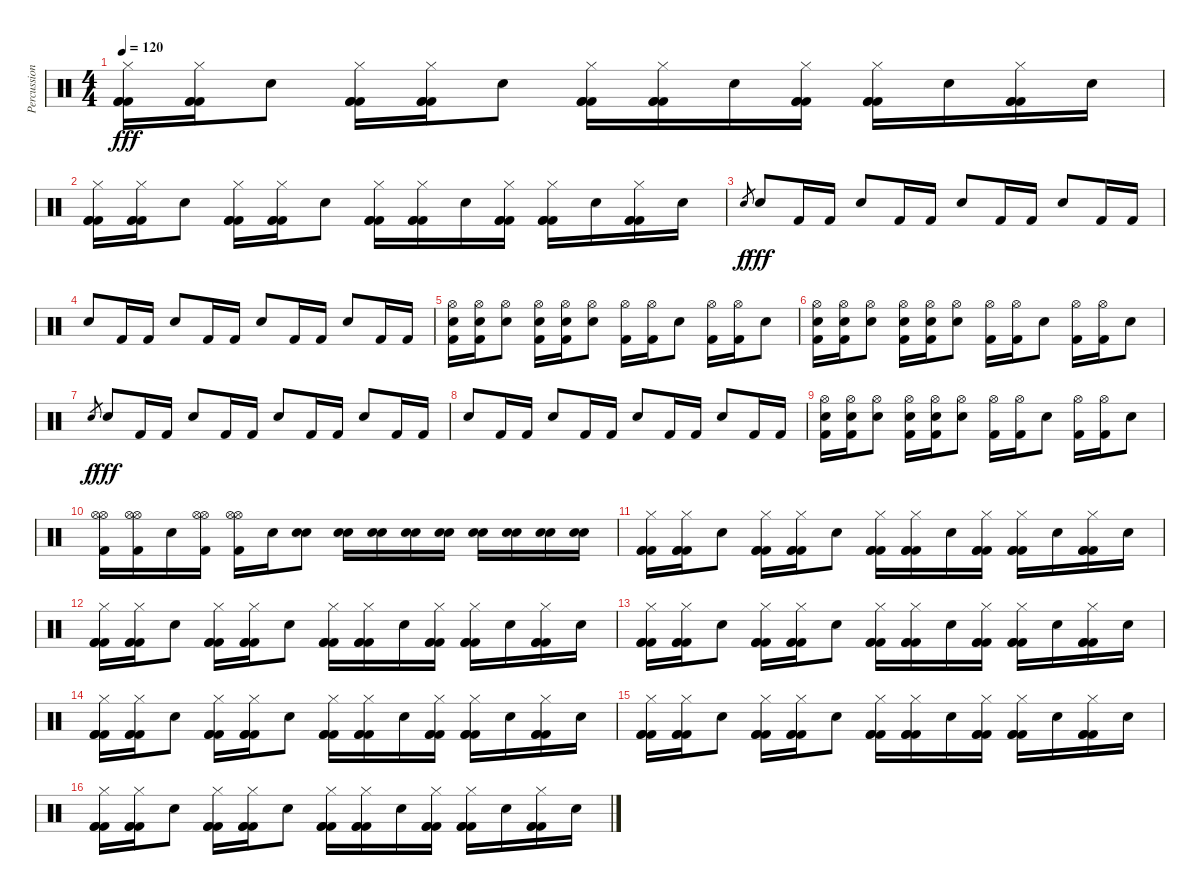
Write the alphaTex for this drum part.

\track ("Percussion" "Percussion") {instrument percussion}
\staff {score}
\articulation defaults
\ts (4 4)
\tempo 120
\clef neutral
\ks c
("Kick (hit) 2" "Kick (hit) 2" "Hi-Hat (closed)" "Kick (hit) 2").16{dy fff} ("Kick (hit) 2" "Kick (hit) 2" "Hi-Hat (closed)" "Kick (hit) 2").16 "Snare (hit) 2".8 ("Kick (hit) 2" "Kick (hit) 2" "Hi-Hat (closed)" "Kick (hit) 2").16 ("Kick (hit) 2" "Kick (hit) 2" "Hi-Hat (closed)" "Kick (hit) 2").16 "Snare (hit) 2".8 ("Kick (hit) 2" "Kick (hit) 2" "Hi-Hat (closed)" "Kick (hit) 2").16 ("Kick (hit) 2" "Kick (hit) 2" "Hi-Hat (closed)" "Kick (hit) 2").16 "Snare (hit) 2".16 ("Kick (hit) 2" "Kick (hit) 2" "Hi-Hat (closed)" "Kick (hit) 2").16 ("Kick (hit) 2" "Kick (hit) 2" "Hi-Hat (closed)" "Kick (hit) 2").16 "Snare (hit) 2".16 ("Kick (hit) 2" "Kick (hit) 2" "Hi-Hat (closed)" "Kick (hit) 2").16 "Snare (hit) 2".16 |
("Kick (hit) 2" "Kick (hit) 2" "Hi-Hat (closed)" "Kick (hit) 2").16 ("Kick (hit) 2" "Kick (hit) 2" "Hi-Hat (closed)" "Kick (hit) 2").16 "Snare (hit) 2".8 ("Kick (hit) 2" "Kick (hit) 2" "Hi-Hat (closed)" "Kick (hit) 2").16 ("Kick (hit) 2" "Kick (hit) 2" "Hi-Hat (closed)" "Kick (hit) 2").16 "Snare (hit) 2".8 ("Kick (hit) 2" "Kick (hit) 2" "Hi-Hat (closed)" "Kick (hit) 2").16 ("Kick (hit) 2" "Kick (hit) 2" "Hi-Hat (closed)" "Kick (hit) 2").16 "Snare (hit) 2".16 ("Kick (hit) 2" "Kick (hit) 2" "Hi-Hat (closed)" "Kick (hit) 2").16 ("Kick (hit) 2" "Kick (hit) 2" "Hi-Hat (closed)" "Kick (hit) 2").16 "Snare (hit) 2".16 ("Kick (hit) 2" "Kick (hit) 2" "Hi-Hat (closed)" "Kick (hit) 2").16 "Snare (hit) 2".16 |
"Snare (hit) 2".8{gr dy f} "Snare (hit) 2".8{dy fff} "Kick (hit) 2".16 "Kick (hit) 2".16 "Snare (hit) 2".8 "Kick (hit) 2".16 "Kick (hit) 2".16 "Snare (hit) 2".8 "Kick (hit) 2".16 "Kick (hit) 2".16 "Snare (hit) 2".8 "Kick (hit) 2".16 "Kick (hit) 2".16 |
"Snare (hit) 2".8 "Kick (hit) 2".16 "Kick (hit) 2".16 "Snare (hit) 2".8 "Kick (hit) 2".16 "Kick (hit) 2".16 "Snare (hit) 2".8 "Kick (hit) 2".16 "Kick (hit) 2".16 "Snare (hit) 2".8 "Kick (hit) 2".16 "Kick (hit) 2".16 |
("Hi-Hat (open)" "Snare (hit) 2" "Kick (hit) 2").16 ("Hi-Hat (open)" "Snare (hit) 2" "Kick (hit) 2").16 ("Hi-Hat (open)" "Snare (hit) 2").8 ("Hi-Hat (open)" "Snare (hit) 2" "Kick (hit) 2").16 ("Hi-Hat (open)" "Snare (hit) 2" "Kick (hit) 2").16 ("Hi-Hat (open)" "Snare (hit) 2").8 ("Hi-Hat (open)" "Kick (hit) 2").16 ("Hi-Hat (open)" "Kick (hit) 2").16 "Snare (hit) 2".8 ("Hi-Hat (open)" "Kick (hit) 2").16 ("Hi-Hat (open)" "Kick (hit) 2").16 "Snare (hit) 2".8 |
("Hi-Hat (open)" "Snare (hit) 2" "Kick (hit) 2").16 ("Hi-Hat (open)" "Snare (hit) 2" "Kick (hit) 2").16 ("Hi-Hat (open)" "Snare (hit) 2").8 ("Hi-Hat (open)" "Snare (hit) 2" "Kick (hit) 2").16 ("Hi-Hat (open)" "Snare (hit) 2" "Kick (hit) 2").16 ("Hi-Hat (open)" "Snare (hit) 2").8 ("Hi-Hat (open)" "Kick (hit) 2").16 ("Hi-Hat (open)" "Kick (hit) 2").16 "Snare (hit) 2".8 ("Hi-Hat (open)" "Kick (hit) 2").16 ("Hi-Hat (open)" "Kick (hit) 2").16 "Snare (hit) 2".8 |
"Snare (hit) 2".8{gr dy f} "Snare (hit) 2".8{dy fff} "Kick (hit) 2".16 "Kick (hit) 2".16 "Snare (hit) 2".8 "Kick (hit) 2".16 "Kick (hit) 2".16 "Snare (hit) 2".8 "Kick (hit) 2".16 "Kick (hit) 2".16 "Snare (hit) 2".8 "Kick (hit) 2".16 "Kick (hit) 2".16 |
"Snare (hit) 2".8 "Kick (hit) 2".16 "Kick (hit) 2".16 "Snare (hit) 2".8 "Kick (hit) 2".16 "Kick (hit) 2".16 "Snare (hit) 2".8 "Kick (hit) 2".16 "Kick (hit) 2".16 "Snare (hit) 2".8 "Kick (hit) 2".16 "Kick (hit) 2".16 |
("Hi-Hat (open)" "Snare (hit) 2" "Kick (hit) 2").16 ("Hi-Hat (open)" "Snare (hit) 2" "Kick (hit) 2").16 ("Hi-Hat (open)" "Snare (hit) 2").8 ("Hi-Hat (open)" "Snare (hit) 2" "Kick (hit) 2").16 ("Hi-Hat (open)" "Snare (hit) 2" "Kick (hit) 2").16 ("Hi-Hat (open)" "Snare (hit) 2").8 ("Hi-Hat (open)" "Kick (hit) 2").16 ("Hi-Hat (open)" "Kick (hit) 2").16 "Snare (hit) 2".8 ("Hi-Hat (open)" "Kick (hit) 2").16 ("Hi-Hat (open)" "Kick (hit) 2").16 "Snare (hit) 2".8 |
("Hi-Hat (open)" "Hi-Hat (open)" "Kick (hit) 2").16 ("Hi-Hat (open)" "Hi-Hat (open)" "Kick (hit) 2").16 "Snare (hit) 2".16 ("Hi-Hat (open)" "Hi-Hat (open)" "Kick (hit) 2").16 ("Hi-Hat (open)" "Hi-Hat (open)" "Kick (hit) 2").16 "Snare (hit) 2".16 ("Snare (hit) 2" "Snare (hit) 2").8 ("Snare (hit) 2" "Snare (hit) 2").16 ("Snare (hit) 2" "Snare (hit) 2").16 ("Snare (hit) 2" "Snare (hit) 2").16 ("Snare (hit) 2" "Snare (hit) 2").16 ("Snare (hit) 2" "Snare (hit) 2").16 ("Snare (hit) 2" "Snare (hit) 2").16 ("Snare (hit) 2" "Snare (hit) 2").16 ("Snare (hit) 2" "Snare (hit) 2").16 |
("Kick (hit) 2" "Kick (hit) 2" "Hi-Hat (closed)" "Kick (hit) 2").16 ("Kick (hit) 2" "Kick (hit) 2" "Hi-Hat (closed)" "Kick (hit) 2").16 "Snare (hit) 2".8 ("Kick (hit) 2" "Kick (hit) 2" "Hi-Hat (closed)" "Kick (hit) 2").16 ("Kick (hit) 2" "Kick (hit) 2" "Hi-Hat (closed)" "Kick (hit) 2").16 "Snare (hit) 2".8 ("Kick (hit) 2" "Kick (hit) 2" "Hi-Hat (closed)" "Kick (hit) 2").16 ("Kick (hit) 2" "Kick (hit) 2" "Hi-Hat (closed)" "Kick (hit) 2").16 "Snare (hit) 2".16 ("Kick (hit) 2" "Kick (hit) 2" "Hi-Hat (closed)" "Kick (hit) 2").16 ("Kick (hit) 2" "Kick (hit) 2" "Hi-Hat (closed)" "Kick (hit) 2").16 "Snare (hit) 2".16 ("Kick (hit) 2" "Kick (hit) 2" "Hi-Hat (closed)" "Kick (hit) 2").16 "Snare (hit) 2".16 |
("Kick (hit) 2" "Kick (hit) 2" "Hi-Hat (closed)" "Kick (hit) 2").16 ("Kick (hit) 2" "Kick (hit) 2" "Hi-Hat (closed)" "Kick (hit) 2").16 "Snare (hit) 2".8 ("Kick (hit) 2" "Kick (hit) 2" "Hi-Hat (closed)" "Kick (hit) 2").16 ("Kick (hit) 2" "Kick (hit) 2" "Hi-Hat (closed)" "Kick (hit) 2").16 "Snare (hit) 2".8 ("Kick (hit) 2" "Kick (hit) 2" "Hi-Hat (closed)" "Kick (hit) 2").16 ("Kick (hit) 2" "Kick (hit) 2" "Hi-Hat (closed)" "Kick (hit) 2").16 "Snare (hit) 2".16 ("Kick (hit) 2" "Kick (hit) 2" "Hi-Hat (closed)" "Kick (hit) 2").16 ("Kick (hit) 2" "Kick (hit) 2" "Hi-Hat (closed)" "Kick (hit) 2").16 "Snare (hit) 2".16 ("Kick (hit) 2" "Kick (hit) 2" "Hi-Hat (closed)" "Kick (hit) 2").16 "Snare (hit) 2".16 |
("Kick (hit) 2" "Kick (hit) 2" "Hi-Hat (closed)" "Kick (hit) 2").16 ("Kick (hit) 2" "Kick (hit) 2" "Hi-Hat (closed)" "Kick (hit) 2").16 "Snare (hit) 2".8 ("Kick (hit) 2" "Kick (hit) 2" "Hi-Hat (closed)" "Kick (hit) 2").16 ("Kick (hit) 2" "Kick (hit) 2" "Hi-Hat (closed)" "Kick (hit) 2").16 "Snare (hit) 2".8 ("Kick (hit) 2" "Kick (hit) 2" "Hi-Hat (closed)" "Kick (hit) 2").16 ("Kick (hit) 2" "Kick (hit) 2" "Hi-Hat (closed)" "Kick (hit) 2").16 "Snare (hit) 2".16 ("Kick (hit) 2" "Kick (hit) 2" "Hi-Hat (closed)" "Kick (hit) 2").16 ("Kick (hit) 2" "Kick (hit) 2" "Hi-Hat (closed)" "Kick (hit) 2").16 "Snare (hit) 2".16 ("Kick (hit) 2" "Kick (hit) 2" "Hi-Hat (closed)" "Kick (hit) 2").16 "Snare (hit) 2".16 |
("Kick (hit) 2" "Kick (hit) 2" "Hi-Hat (closed)" "Kick (hit) 2").16 ("Kick (hit) 2" "Kick (hit) 2" "Hi-Hat (closed)" "Kick (hit) 2").16 "Snare (hit) 2".8 ("Kick (hit) 2" "Kick (hit) 2" "Hi-Hat (closed)" "Kick (hit) 2").16 ("Kick (hit) 2" "Kick (hit) 2" "Hi-Hat (closed)" "Kick (hit) 2").16 "Snare (hit) 2".8 ("Kick (hit) 2" "Kick (hit) 2" "Hi-Hat (closed)" "Kick (hit) 2").16 ("Kick (hit) 2" "Kick (hit) 2" "Hi-Hat (closed)" "Kick (hit) 2").16 "Snare (hit) 2".16 ("Kick (hit) 2" "Kick (hit) 2" "Hi-Hat (closed)" "Kick (hit) 2").16 ("Kick (hit) 2" "Kick (hit) 2" "Hi-Hat (closed)" "Kick (hit) 2").16 "Snare (hit) 2".16 ("Kick (hit) 2" "Kick (hit) 2" "Hi-Hat (closed)" "Kick (hit) 2").16 "Snare (hit) 2".16 |
("Kick (hit) 2" "Kick (hit) 2" "Hi-Hat (closed)" "Kick (hit) 2").16 ("Kick (hit) 2" "Kick (hit) 2" "Hi-Hat (closed)" "Kick (hit) 2").16 "Snare (hit) 2".8 ("Kick (hit) 2" "Kick (hit) 2" "Hi-Hat (closed)" "Kick (hit) 2").16 ("Kick (hit) 2" "Kick (hit) 2" "Hi-Hat (closed)" "Kick (hit) 2").16 "Snare (hit) 2".8 ("Kick (hit) 2" "Kick (hit) 2" "Hi-Hat (closed)" "Kick (hit) 2").16 ("Kick (hit) 2" "Kick (hit) 2" "Hi-Hat (closed)" "Kick (hit) 2").16 "Snare (hit) 2".16 ("Kick (hit) 2" "Kick (hit) 2" "Hi-Hat (closed)" "Kick (hit) 2").16 ("Kick (hit) 2" "Kick (hit) 2" "Hi-Hat (closed)" "Kick (hit) 2").16 "Snare (hit) 2".16 ("Kick (hit) 2" "Kick (hit) 2" "Hi-Hat (closed)" "Kick (hit) 2").16 "Snare (hit) 2".16 |
("Kick (hit) 2" "Kick (hit) 2" "Hi-Hat (closed)" "Kick (hit) 2").16 ("Kick (hit) 2" "Kick (hit) 2" "Hi-Hat (closed)" "Kick (hit) 2").16 "Snare (hit) 2".8 ("Kick (hit) 2" "Kick (hit) 2" "Hi-Hat (closed)" "Kick (hit) 2").16 ("Kick (hit) 2" "Kick (hit) 2" "Hi-Hat (closed)" "Kick (hit) 2").16 "Snare (hit) 2".8 ("Kick (hit) 2" "Kick (hit) 2" "Hi-Hat (closed)" "Kick (hit) 2").16 ("Kick (hit) 2" "Kick (hit) 2" "Hi-Hat (closed)" "Kick (hit) 2").16 "Snare (hit) 2".16 ("Kick (hit) 2" "Kick (hit) 2" "Hi-Hat (closed)" "Kick (hit) 2").16 ("Kick (hit) 2" "Kick (hit) 2" "Hi-Hat (closed)" "Kick (hit) 2").16 "Snare (hit) 2".16 ("Kick (hit) 2" "Kick (hit) 2" "Hi-Hat (closed)" "Kick (hit) 2").16 "Snare (hit) 2".16
